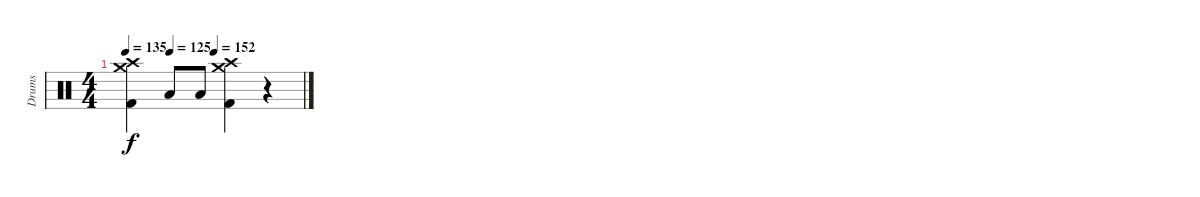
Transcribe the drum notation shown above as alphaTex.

\track ("Drums" "Drums") {instrument percussion}
\staff {score}
\articulation defaults
\ts (4 4)
\tempo 135
\tempo (125 0.25)
\tempo (152 0.5)
\clef neutral
\ks c
("Kick (hit) 2" "Crash high (hit)" "Crash medium (hit)").4{dy f} "Low Tom (hit)".8 "Low Tom (hit)".8 ("Kick (hit) 2" "Crash high (hit)" "Crash medium (hit)").4 r.4
